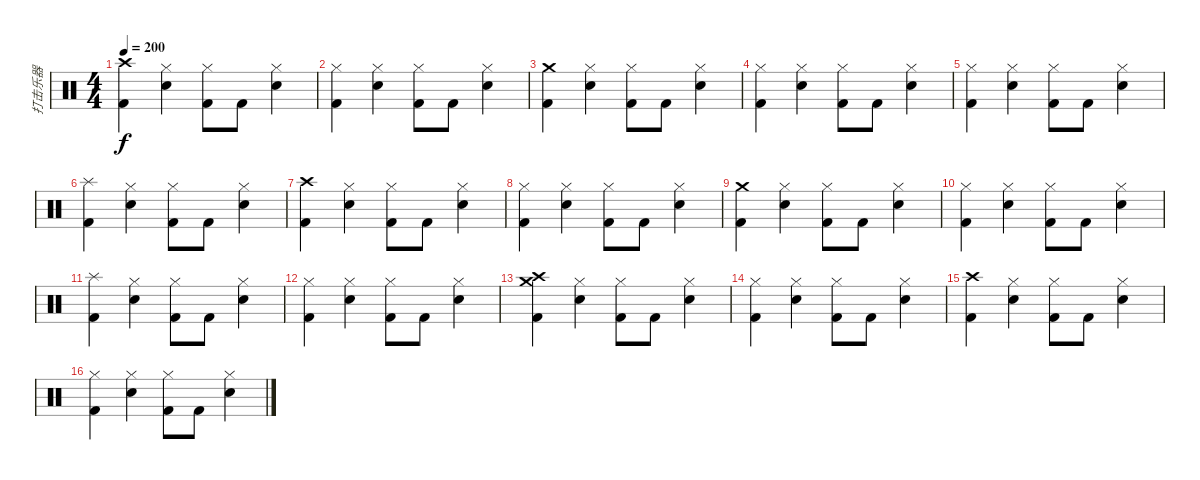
\track ("打击乐器" "打击乐器") {instrument percussion}
\staff {score}
\articulation defaults
\ts (4 4)
\tempo 200
\clef neutral
\ks c
("Crash high (hit)" "Kick (hit) 2").4{dy f} ("Hi-Hat (closed)" "Snare (hit) 2").4 ("Hi-Hat (closed)" "Kick (hit) 2").8 "Kick (hit) 2".8 ("Hi-Hat (closed)" "Snare (hit) 2").4 |
("Hi-Hat (closed)" "Kick (hit) 2").4 ("Hi-Hat (closed)" "Snare (hit) 2").4 ("Hi-Hat (closed)" "Kick (hit) 2").8 "Kick (hit) 2".8 ("Hi-Hat (closed)" "Snare (hit) 2").4 |
("Crash medium (hit)" "Kick (hit) 2").4 ("Hi-Hat (closed)" "Snare (hit) 2").4 ("Hi-Hat (closed)" "Kick (hit) 2").8 "Kick (hit) 2".8 ("Hi-Hat (closed)" "Snare (hit) 2").4 |
("Hi-Hat (closed)" "Kick (hit) 2").4 ("Hi-Hat (closed)" "Snare (hit) 2").4 ("Hi-Hat (closed)" "Kick (hit) 2").8 "Kick (hit) 2".8 ("Hi-Hat (closed)" "Snare (hit) 2").4 |
("Hi-Hat (closed)" "Kick (hit) 2").4 ("Hi-Hat (closed)" "Snare (hit) 2").4 ("Hi-Hat (closed)" "Kick (hit) 2").8 "Kick (hit) 2".8 ("Hi-Hat (closed)" "Snare (hit) 2").4 |
("Splash (hit)" "Kick (hit) 2").4 ("Hi-Hat (closed)" "Snare (hit) 2").4 ("Hi-Hat (closed)" "Kick (hit) 2").8 "Kick (hit) 2".8 ("Hi-Hat (closed)" "Snare (hit) 2").4 |
("Crash high (hit)" "Kick (hit) 2").4 ("Hi-Hat (closed)" "Snare (hit) 2").4 ("Hi-Hat (closed)" "Kick (hit) 2").8 "Kick (hit) 2".8 ("Hi-Hat (closed)" "Snare (hit) 2").4 |
("Hi-Hat (closed)" "Kick (hit) 2").4 ("Hi-Hat (closed)" "Snare (hit) 2").4 ("Hi-Hat (closed)" "Kick (hit) 2").8 "Kick (hit) 2".8 ("Hi-Hat (closed)" "Snare (hit) 2").4 |
("Crash medium (hit)" "Kick (hit) 2").4 ("Hi-Hat (closed)" "Snare (hit) 2").4 ("Hi-Hat (closed)" "Kick (hit) 2").8 "Kick (hit) 2".8 ("Hi-Hat (closed)" "Snare (hit) 2").4 |
("Hi-Hat (closed)" "Kick (hit) 2").4 ("Hi-Hat (closed)" "Snare (hit) 2").4 ("Hi-Hat (closed)" "Kick (hit) 2").8 "Kick (hit) 2".8 ("Hi-Hat (closed)" "Snare (hit) 2").4 |
("Splash (hit)" "Kick (hit) 2").4 ("Hi-Hat (closed)" "Snare (hit) 2").4 ("Hi-Hat (closed)" "Kick (hit) 2").8 "Kick (hit) 2".8 ("Hi-Hat (closed)" "Snare (hit) 2").4 |
("Hi-Hat (closed)" "Kick (hit) 2").4 ("Hi-Hat (closed)" "Snare (hit) 2").4 ("Hi-Hat (closed)" "Kick (hit) 2").8 "Kick (hit) 2".8 ("Hi-Hat (closed)" "Snare (hit) 2").4 |
("Crash medium (hit)" "Crash high (hit)" "Kick (hit) 2").4 ("Hi-Hat (closed)" "Snare (hit) 2").4 ("Hi-Hat (closed)" "Kick (hit) 2").8 "Kick (hit) 2".8 ("Hi-Hat (closed)" "Snare (hit) 2").4 |
("Hi-Hat (closed)" "Kick (hit) 2").4 ("Hi-Hat (closed)" "Snare (hit) 2").4 ("Hi-Hat (closed)" "Kick (hit) 2").8 "Kick (hit) 2".8 ("Hi-Hat (closed)" "Snare (hit) 2").4 |
("Crash high (hit)" "Kick (hit) 2").4 ("Hi-Hat (closed)" "Snare (hit) 2").4 ("Hi-Hat (closed)" "Kick (hit) 2").8 "Kick (hit) 2".8 ("Hi-Hat (closed)" "Snare (hit) 2").4 |
("Hi-Hat (closed)" "Kick (hit) 2").4 ("Hi-Hat (closed)" "Snare (hit) 2").4 ("Hi-Hat (closed)" "Kick (hit) 2").8 "Kick (hit) 2".8 ("Hi-Hat (closed)" "Snare (hit) 2").4
